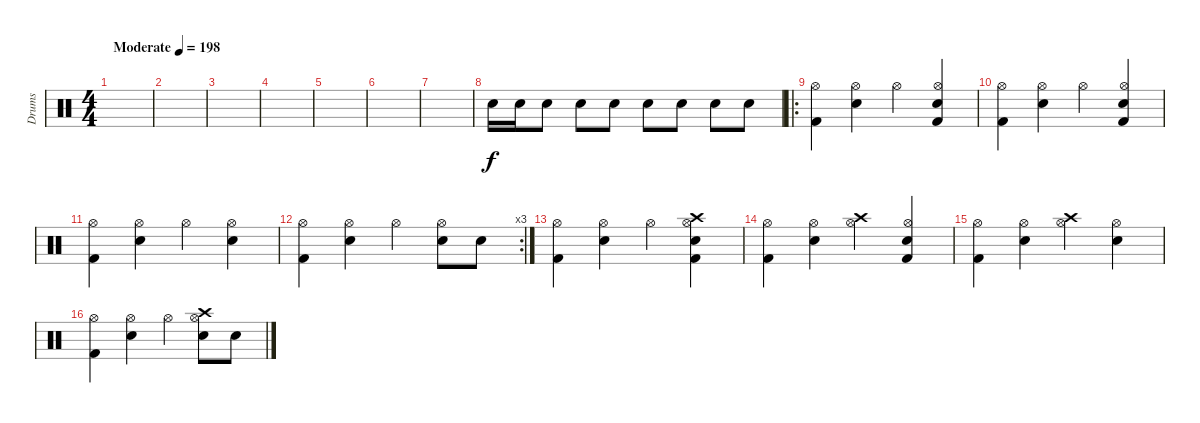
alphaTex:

\track ("Drums" "Drums") {instrument percussion}
\staff {score}
\articulation defaults
\ts (4 4)
\tempo (198 "Moderate")
\clef neutral
\ks c
|
|
|
|
|
|
|
"Snare (hit) 2".16 "Snare (hit) 2".16 "Snare (hit) 2".8 "Snare (hit) 2".8 "Snare (hit) 2".8 "Snare (hit) 2".8 "Snare (hit) 2".8 "Snare (hit) 2".8 "Snare (hit) 2".8 |
\ro
("Hi-Hat (open)" "Kick (hit) 2").4 ("Hi-Hat (open)" "Snare (hit) 2").4 "Hi-Hat (open)".4 ("Hi-Hat (open)" "Snare (hit) 2" "Kick (hit) 2").4 |
("Hi-Hat (open)" "Kick (hit) 2").4 ("Hi-Hat (open)" "Snare (hit) 2").4 "Hi-Hat (open)".4 ("Hi-Hat (open)" "Snare (hit) 2" "Kick (hit) 2").4 |
("Hi-Hat (open)" "Kick (hit) 2").4 ("Hi-Hat (open)" "Snare (hit) 2").4 "Hi-Hat (open)".4 ("Hi-Hat (open)" "Snare (hit) 2").4 |
\rc 3
("Hi-Hat (open)" "Kick (hit) 2").4 ("Hi-Hat (open)" "Snare (hit) 2").4 "Hi-Hat (open)".4 ("Hi-Hat (open)" "Snare (hit) 2").8 "Snare (hit) 2".8 |
("Hi-Hat (open)" "Kick (hit) 2").4 ("Hi-Hat (open)" "Snare (hit) 2").4 "Hi-Hat (open)".4 ("Hi-Hat (open)" "Snare (hit) 2" "Kick (hit) 2" "Crash high (hit)").4 |
("Hi-Hat (open)" "Kick (hit) 2").4 ("Hi-Hat (open)" "Snare (hit) 2").4 ("Hi-Hat (open)" "Crash high (hit)").4 ("Hi-Hat (open)" "Snare (hit) 2" "Kick (hit) 2").4 |
("Hi-Hat (open)" "Kick (hit) 2").4 ("Hi-Hat (open)" "Snare (hit) 2").4 ("Hi-Hat (open)" "Crash high (hit)").4 ("Hi-Hat (open)" "Snare (hit) 2").4 |
("Hi-Hat (open)" "Kick (hit) 2").4 ("Hi-Hat (open)" "Snare (hit) 2").4 "Hi-Hat (open)".4 ("Hi-Hat (open)" "Snare (hit) 2" "Crash high (hit)").8 "Snare (hit) 2".8
